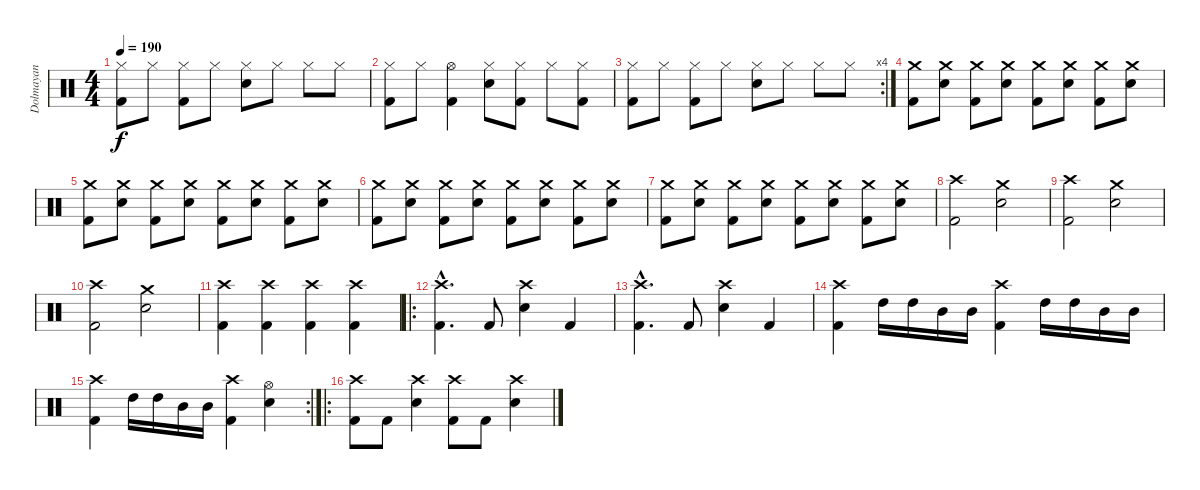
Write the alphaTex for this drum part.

\track ("Dolmayan" "Dolmayan") {instrument percussion}
\staff {score}
\articulation defaults
\ts (4 4)
\tempo 190
\clef neutral
\ks c
("Hi-Hat (closed)" "Kick (hit) 2").8{dy f} "Hi-Hat (closed)".8 ("Hi-Hat (closed)" "Kick (hit) 2").8 "Hi-Hat (closed)".8 ("Hi-Hat (closed)" "Electric Snare (hit)").8 "Hi-Hat (closed)".8 "Hi-Hat (closed)".8 "Hi-Hat (closed)".8 |
("Hi-Hat (closed)" "Kick (hit) 2").8 "Hi-Hat (closed)".8 ("Hi-Hat (open)" "Kick (hit) 2").4 ("Hi-Hat (closed)" "Electric Snare (hit)").8 ("Hi-Hat (closed)" "Kick (hit) 2").8 "Hi-Hat (closed)".8 ("Hi-Hat (closed)" "Kick (hit) 2").8 |
\rc 4
("Hi-Hat (closed)" "Kick (hit) 2").8 "Hi-Hat (closed)".8 ("Hi-Hat (closed)" "Kick (hit) 2").8 "Hi-Hat (closed)".8 ("Hi-Hat (closed)" "Electric Snare (hit)").8 "Hi-Hat (closed)".8 "Hi-Hat (closed)".8 "Hi-Hat (closed)".8 |
("Kick (hit) 2" "Crash medium (hit)").8 ("Electric Snare (hit)" "Crash medium (hit)").8 ("Kick (hit) 2" "Crash medium (hit)").8 ("Electric Snare (hit)" "Crash medium (hit)").8 ("Kick (hit) 2" "Crash medium (hit)").8 ("Electric Snare (hit)" "Crash medium (hit)").8 ("Kick (hit) 2" "Crash medium (hit)").8 ("Electric Snare (hit)" "Crash medium (hit)").8 |
("Kick (hit) 2" "Crash medium (hit)").8 ("Electric Snare (hit)" "Crash medium (hit)").8 ("Kick (hit) 2" "Crash medium (hit)").8 ("Electric Snare (hit)" "Crash medium (hit)").8 ("Kick (hit) 2" "Crash medium (hit)").8 ("Electric Snare (hit)" "Crash medium (hit)").8 ("Kick (hit) 2" "Crash medium (hit)").8 ("Electric Snare (hit)" "Crash medium (hit)").8 |
("Kick (hit) 2" "Crash medium (hit)").8 ("Electric Snare (hit)" "Crash medium (hit)").8 ("Kick (hit) 2" "Crash medium (hit)").8 ("Electric Snare (hit)" "Crash medium (hit)").8 ("Kick (hit) 2" "Crash medium (hit)").8 ("Electric Snare (hit)" "Crash medium (hit)").8 ("Kick (hit) 2" "Crash medium (hit)").8 ("Electric Snare (hit)" "Crash medium (hit)").8 |
("Kick (hit) 2" "Crash medium (hit)").8 ("Electric Snare (hit)" "Crash medium (hit)").8 ("Kick (hit) 2" "Crash medium (hit)").8 ("Electric Snare (hit)" "Crash medium (hit)").8 ("Kick (hit) 2" "Crash medium (hit)").8 ("Electric Snare (hit)" "Crash medium (hit)").8 ("Kick (hit) 2" "Crash medium (hit)").8 ("Electric Snare (hit)" "Crash medium (hit)").8 |
("Crash high (hit)" "Kick (hit) 2").2 ("Crash medium (hit)" "Electric Snare (hit)").2 |
("Crash high (hit)" "Kick (hit) 2").2 ("Crash medium (hit)" "Electric Snare (hit)").2 |
("Crash high (hit)" "Kick (hit) 2").2 ("Crash medium (hit)" "Electric Snare (hit)").2 |
("Crash high (hit)" "Kick (hit) 2").4 ("Crash high (hit)" "Kick (hit) 2").4 ("Crash high (hit)" "Kick (hit) 2").4 ("Crash high (hit)" "Kick (hit) 2").4 |
\ro
("Crash high (hit)"{hac} "Kick (hit) 2"{hac}).4{d} "Kick (hit) 2".8 ("Crash high (hit)" "Electric Snare (hit)").4 "Kick (hit) 2".4 |
("Crash high (hit)"{hac} "Kick (hit) 2"{hac}).4{d} "Kick (hit) 2".8 ("Crash high (hit)" "Electric Snare (hit)").4 "Kick (hit) 2".4 |
("Crash high (hit)" "Kick (hit) 2").4 "High Tom (hit)".16 "High Tom (hit)".16 "Mid Tom (hit)".16 "Mid Tom (hit)".16 ("Crash high (hit)" "Kick (hit) 2").4 "High Tom (hit)".16 "High Tom (hit)".16 "Mid Tom (hit)".16 "Mid Tom (hit)".16 |
\rc 2
("Crash high (hit)" "Kick (hit) 2").4 "High Tom (hit)".16 "High Tom (hit)".16 "Mid Tom (hit)".16 "Mid Tom (hit)".16 ("Crash high (hit)" "Kick (hit) 2").4 ("Hi-Hat (open)" "Electric Snare (hit)").4 |
\ro
("Crash high (hit)" "Kick (hit) 2").8 "Kick (hit) 2".8 ("Crash high (hit)" "Electric Snare (hit)").4 ("Crash high (hit)" "Kick (hit) 2").8 "Kick (hit) 2".8 ("Crash high (hit)" "Electric Snare (hit)").4
